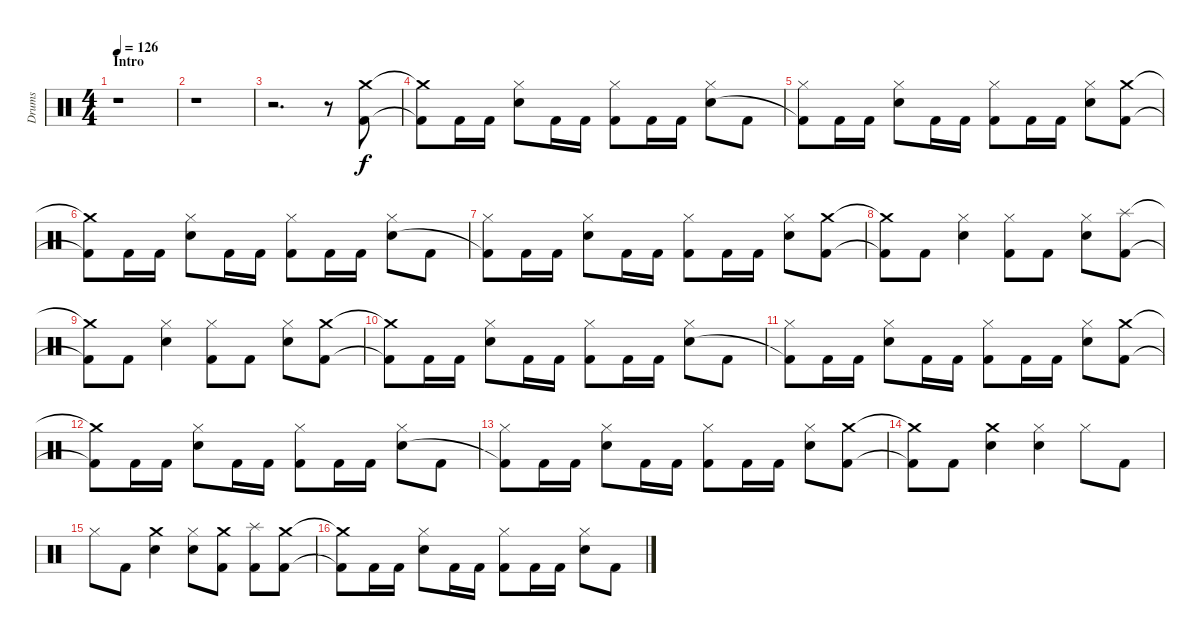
\track ("Drums" "Drums") {instrument percussion}
\staff {score}
\articulation defaults
\ts (4 4)
\section ("" "Intro")
\tempo 126
\clef neutral
\ks c
r.1{dy f} |
r.1 |
r.2{d} r.8 ("Crash medium (hit)" "Kick (hit) 2").8 |
("Crash medium (hit)"{t} "Kick (hit) 2"{t}).8 "Kick (hit) 2".16 "Kick (hit) 2".16 ("Hi-Hat (closed)" "Snare (hit) 2").8 "Kick (hit) 2".16 "Kick (hit) 2".16 ("Hi-Hat (closed)" "Kick (hit) 2").8 "Kick (hit) 2".16 "Kick (hit) 2".16 ("Hi-Hat (closed)" "Snare (hit) 2").8 "Kick (hit) 2".8 |
("Hi-Hat (closed)" "Kick (hit) 2"{t}).8 "Kick (hit) 2".16 "Kick (hit) 2".16 ("Hi-Hat (closed)" "Snare (hit) 2").8 "Kick (hit) 2".16 "Kick (hit) 2".16 ("Hi-Hat (closed)" "Kick (hit) 2").8 "Kick (hit) 2".16 "Kick (hit) 2".16 ("Hi-Hat (closed)" "Snare (hit) 2").8 ("Crash medium (hit)" "Kick (hit) 2").8 |
("Crash medium (hit)"{t} "Kick (hit) 2"{t}).8 "Kick (hit) 2".16 "Kick (hit) 2".16 ("Hi-Hat (closed)" "Snare (hit) 2").8 "Kick (hit) 2".16 "Kick (hit) 2".16 ("Hi-Hat (closed)" "Kick (hit) 2").8 "Kick (hit) 2".16 "Kick (hit) 2".16 ("Hi-Hat (closed)" "Snare (hit) 2").8 "Kick (hit) 2".8 |
("Hi-Hat (closed)" "Kick (hit) 2"{t}).8 "Kick (hit) 2".16 "Kick (hit) 2".16 ("Hi-Hat (closed)" "Snare (hit) 2").8 "Kick (hit) 2".16 "Kick (hit) 2".16 ("Hi-Hat (closed)" "Kick (hit) 2").8 "Kick (hit) 2".16 "Kick (hit) 2".16 ("Hi-Hat (closed)" "Snare (hit) 2").8 ("Crash medium (hit)" "Kick (hit) 2").8 |
("Crash medium (hit)"{t} "Kick (hit) 2"{t}).8 "Kick (hit) 2".8 ("Hi-Hat (closed)" "Snare (hit) 2").4 ("Hi-Hat (closed)" "Kick (hit) 2").8 "Kick (hit) 2".8 ("Hi-Hat (closed)" "Snare (hit) 2").8 ("Splash (hit)" "Kick (hit) 2").8 |
("Crash medium (hit)"{t} "Kick (hit) 2"{t}).8 "Kick (hit) 2".8 ("Hi-Hat (closed)" "Snare (hit) 2").4 ("Hi-Hat (closed)" "Kick (hit) 2").8 "Kick (hit) 2".8 ("Hi-Hat (closed)" "Snare (hit) 2").8 ("Crash medium (hit)" "Kick (hit) 2").8 |
("Crash medium (hit)"{t} "Kick (hit) 2"{t}).8 "Kick (hit) 2".16 "Kick (hit) 2".16 ("Hi-Hat (closed)" "Snare (hit) 2").8 "Kick (hit) 2".16 "Kick (hit) 2".16 ("Hi-Hat (closed)" "Kick (hit) 2").8 "Kick (hit) 2".16 "Kick (hit) 2".16 ("Hi-Hat (closed)" "Snare (hit) 2").8 "Kick (hit) 2".8 |
("Hi-Hat (closed)" "Kick (hit) 2"{t}).8 "Kick (hit) 2".16 "Kick (hit) 2".16 ("Hi-Hat (closed)" "Snare (hit) 2").8 "Kick (hit) 2".16 "Kick (hit) 2".16 ("Hi-Hat (closed)" "Kick (hit) 2").8 "Kick (hit) 2".16 "Kick (hit) 2".16 ("Hi-Hat (closed)" "Snare (hit) 2").8 ("Crash medium (hit)" "Kick (hit) 2").8 |
("Crash medium (hit)"{t} "Kick (hit) 2"{t}).8 "Kick (hit) 2".16 "Kick (hit) 2".16 ("Hi-Hat (closed)" "Snare (hit) 2").8 "Kick (hit) 2".16 "Kick (hit) 2".16 ("Hi-Hat (closed)" "Kick (hit) 2").8 "Kick (hit) 2".16 "Kick (hit) 2".16 ("Hi-Hat (closed)" "Snare (hit) 2").8 "Kick (hit) 2".8 |
("Hi-Hat (closed)" "Kick (hit) 2"{t}).8 "Kick (hit) 2".16 "Kick (hit) 2".16 ("Hi-Hat (closed)" "Snare (hit) 2").8 "Kick (hit) 2".16 "Kick (hit) 2".16 ("Hi-Hat (closed)" "Kick (hit) 2").8 "Kick (hit) 2".16 "Kick (hit) 2".16 ("Hi-Hat (closed)" "Snare (hit) 2").8 ("Crash medium (hit)" "Kick (hit) 2").8 |
("Crash medium (hit)"{t} "Kick (hit) 2"{t}).8 "Kick (hit) 2".8 ("Crash medium (hit)" "Snare (hit) 2").4 ("Hi-Hat (closed)" "Snare (hit) 2").4 "Hi-Hat (closed)".8 "Kick (hit) 2".8 |
"Hi-Hat (closed)".8 "Kick (hit) 2".8 ("Crash medium (hit)" "Snare (hit) 2").4 ("Hi-Hat (closed)" "Snare (hit) 2").8 ("Crash medium (hit)" "Kick (hit) 2").8 ("Splash (hit)" "Kick (hit) 2").8 ("Crash medium (hit)" "Kick (hit) 2").8 |
("Crash medium (hit)"{t} "Kick (hit) 2"{t}).8 "Kick (hit) 2".16 "Kick (hit) 2".16 ("Hi-Hat (closed)" "Snare (hit) 2").8 "Kick (hit) 2".16 "Kick (hit) 2".16 ("Hi-Hat (closed)" "Kick (hit) 2").8 "Kick (hit) 2".16 "Kick (hit) 2".16 ("Hi-Hat (closed)" "Snare (hit) 2").8 "Kick (hit) 2".8
